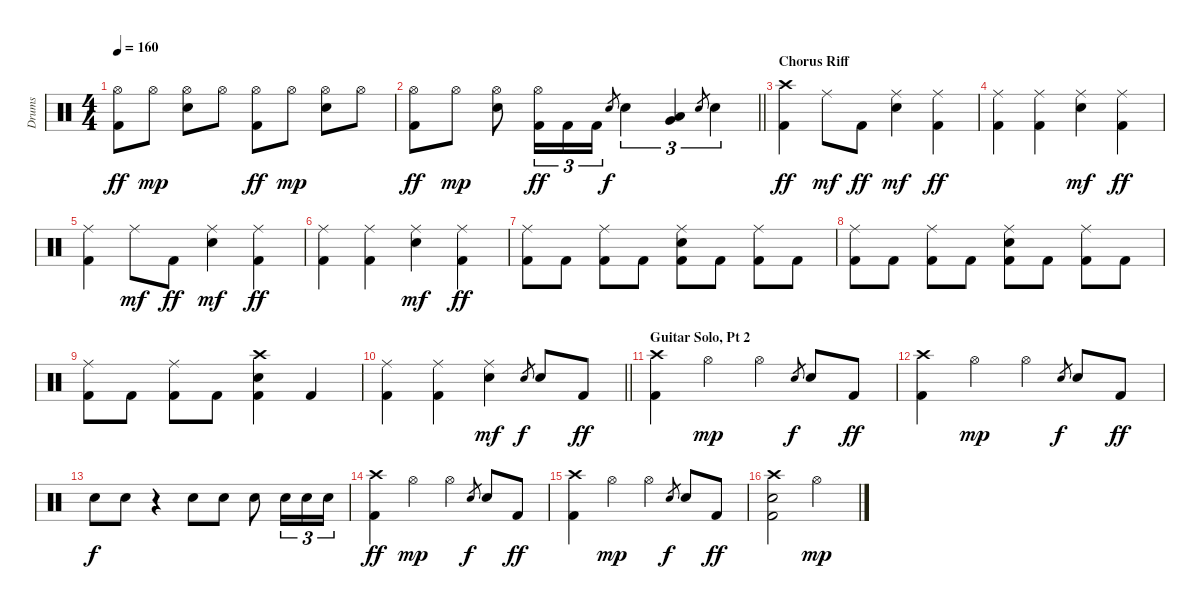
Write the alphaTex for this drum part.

\track ("Drums" "Drums") {instrument percussion}
\staff {score}
\articulation defaults
\ts (4 4)
\tempo 160
\clef neutral
\ks c
("Hi-Hat (open)" "Kick (hit) 2").8{dy ff} "Hi-Hat (open)".8{dy mp} ("Hi-Hat (open)" "Electric Snare (hit)").8 "Hi-Hat (open)".8 ("Hi-Hat (open)" "Kick (hit) 2").8{dy ff} "Hi-Hat (open)".8{dy mp} ("Hi-Hat (open)" "Electric Snare (hit)").8 "Hi-Hat (open)".8 |
\barLineRight lightlight
("Hi-Hat (open)" "Kick (hit) 2").8{dy ff} "Hi-Hat (open)".8{dy mp} ("Hi-Hat (open)" "Electric Snare (hit)").8 ("Hi-Hat (open)" "Kick (hit) 2").16{tu (3 2) dy ff} "Kick (hit) 2".16{tu (3 2)} "Kick (hit) 2".16{tu (3 2)} "Electric Snare (hit)".8{gr dy f} "Electric Snare (hit)".4{tu (3 2)} ("Low Tom (hit)" "Very Low Tom (hit)").4{tu (3 2)} "Electric Snare (hit)".8{gr} "Electric Snare (hit)".4{tu (3 2)} |
\section ("" "Chorus Riff ")
("Crash high (hit)" "Kick (hit) 2").4{dy ff} "Ride (middle)".8{dy mf} "Kick (hit) 2".8{dy ff} ("Ride (middle)" "Electric Snare (hit)").4{dy mf} ("Ride (middle)" "Kick (hit) 2").4{dy ff} |
("Ride (middle)" "Kick (hit) 2").4 ("Ride (middle)" "Kick (hit) 2").4 ("Ride (middle)" "Electric Snare (hit)").4{dy mf} ("Ride (middle)" "Kick (hit) 2").4{dy ff} |
("Ride (middle)" "Kick (hit) 2").4 "Ride (middle)".8{dy mf} "Kick (hit) 2".8{dy ff} ("Ride (middle)" "Electric Snare (hit)").4{dy mf} ("Ride (middle)" "Kick (hit) 2").4{dy ff} |
("Ride (middle)" "Kick (hit) 2").4 ("Ride (middle)" "Kick (hit) 2").4 ("Ride (middle)" "Electric Snare (hit)").4{dy mf} ("Ride (middle)" "Kick (hit) 2").4{dy ff} |
("Ride (middle)" "Kick (hit) 2").8 "Kick (hit) 2".8 ("Ride (middle)" "Kick (hit) 2").8 "Kick (hit) 2".8 ("Ride (middle)" "Electric Snare (hit)" "Kick (hit) 2").8 "Kick (hit) 2".8 ("Ride (middle)" "Kick (hit) 2").8 "Kick (hit) 2".8 |
("Ride (middle)" "Kick (hit) 2").8 "Kick (hit) 2".8 ("Ride (middle)" "Kick (hit) 2").8 "Kick (hit) 2".8 ("Ride (middle)" "Electric Snare (hit)" "Kick (hit) 2").8 "Kick (hit) 2".8 ("Ride (middle)" "Kick (hit) 2").8 "Kick (hit) 2".8 |
("Ride (middle)" "Kick (hit) 2").8 "Kick (hit) 2".8 ("Ride (middle)" "Kick (hit) 2").8 "Kick (hit) 2".8 ("Crash high (hit)" "Electric Snare (hit)" "Kick (hit) 2").4 "Kick (hit) 2".4 |
\barLineRight lightlight
("Ride (middle)" "Kick (hit) 2").4 ("Ride (middle)" "Kick (hit) 2").4 ("Ride (middle)" "Electric Snare (hit)").4{dy mf} "Electric Snare (hit)".8{gr dy f} "Electric Snare (hit)".8 "Kick (hit) 2".8{dy ff} |
\section ("" "Guitar Solo, Pt 2")
("Crash high (hit)" "Kick (hit) 2").4 "Hi-Hat (open)".4{dy mp} "Hi-Hat (open)".4 "Electric Snare (hit)".8{gr dy f} "Electric Snare (hit)".8 "Kick (hit) 2".8{dy ff} |
("Crash high (hit)" "Kick (hit) 2").4 "Hi-Hat (open)".4{dy mp} "Hi-Hat (open)".4 "Electric Snare (hit)".8{gr dy f} "Electric Snare (hit)".8 "Kick (hit) 2".8{dy ff} |
"Electric Snare (hit)".8{dy f} "Electric Snare (hit)".8 r.4 "Electric Snare (hit)".8 "Electric Snare (hit)".8 "Electric Snare (hit)".8 "Electric Snare (hit)".16{tu (3 2)} "Electric Snare (hit)".16{tu (3 2)} "Electric Snare (hit)".16{tu (3 2)} |
("Crash high (hit)" "Kick (hit) 2").4{dy ff} "Hi-Hat (open)".4{dy mp} "Hi-Hat (open)".4 "Electric Snare (hit)".8{gr dy f} "Electric Snare (hit)".8 "Kick (hit) 2".8{dy ff} |
("Crash high (hit)" "Kick (hit) 2").4 "Hi-Hat (open)".4{dy mp} "Hi-Hat (open)".4 "Electric Snare (hit)".8{gr dy f} "Electric Snare (hit)".8 "Kick (hit) 2".8{dy ff} |
("Crash high (hit)" "Electric Snare (hit)" "Kick (hit) 2").2 "Hi-Hat (open)".2{dy mp}
